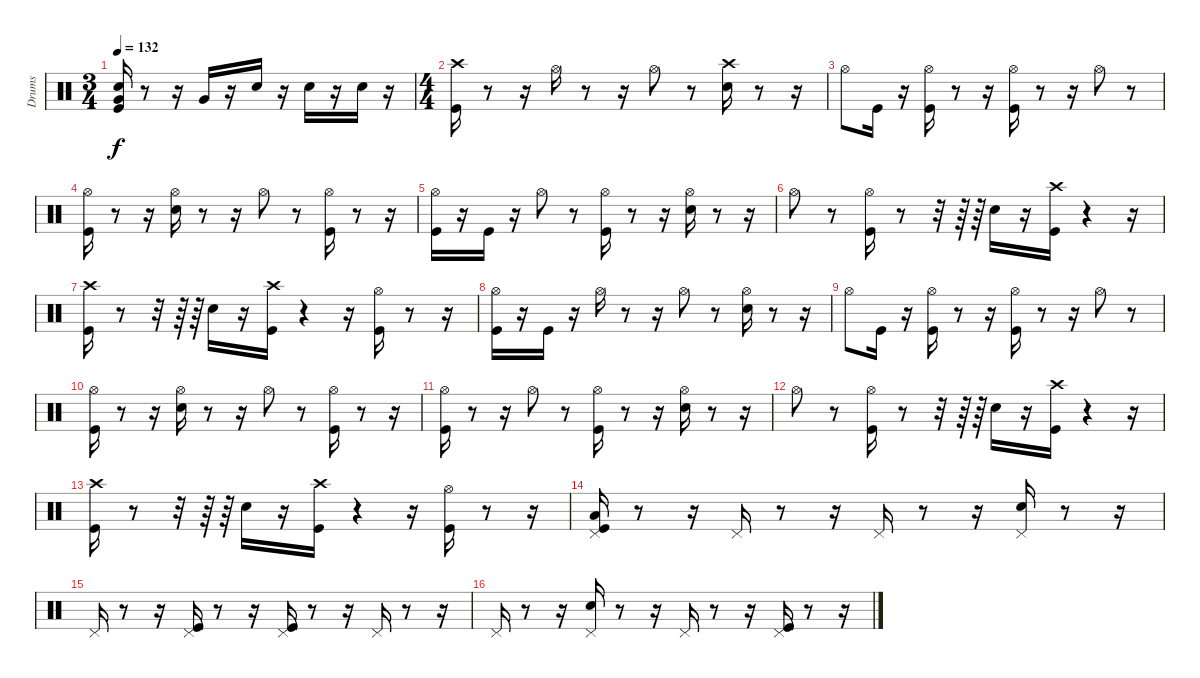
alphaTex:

\track ("Drums" "Drums") {instrument percussion}
\staff {score}
\articulation defaults
\ts (3 4)
\tempo 132
\clef neutral
\ks c
("Snare (hit) 2" "Kick (hit)" "Very Low Tom (hit)").16{dy f} r.8 r.16 "Very Low Tom (hit)".16 r.16 "Snare (hit) 2".16 r.16 "Snare (hit) 2".16 r.16 "Snare (hit) 2".16 r.16 |
\ts (4 4)
("Crash high (hit)" "Kick (hit)").16 r.8 r.16 "Hi-Hat (open)".16 r.8 r.16 "Hi-Hat (open)".8 r.8 ("Snare (hit) 2" "Crash high (hit)").16 r.8 r.16 |
"Hi-Hat (open)".8 "Kick (hit)".16 r.16 ("Hi-Hat (open)" "Kick (hit)").16 r.8 r.16 ("Kick (hit)" "Hi-Hat (open)").16 r.8 r.16 "Hi-Hat (open)".8 r.8 |
("Hi-Hat (open)" "Kick (hit)").16 r.8 r.16 ("Hi-Hat (open)" "Snare (hit) 2").16 r.8 r.16 "Hi-Hat (open)".8 r.8 ("Hi-Hat (open)" "Kick (hit)").16 r.8 r.16 |
("Hi-Hat (open)" "Kick (hit)").16 r.16 "Kick (hit)".16 r.16 "Hi-Hat (open)".8 r.8 ("Kick (hit)" "Hi-Hat (open)").16 r.8 r.16 ("Hi-Hat (open)" "Snare (hit) 2").16 r.8 r.16 |
"Hi-Hat (open)".8 r.8 ("Hi-Hat (open)" "Kick (hit)").16 r.8 r.32 r.64 r.64 "Snare (hit) 2".16 r.16 ("Kick (hit)" "Crash high (hit)").16 r.4 r.16 |
("Kick (hit)" "Crash high (hit)").16 r.8 r.32 r.64 r.64 "Snare (hit) 2".16 r.16 ("Kick (hit)" "Crash high (hit)").16 r.4 r.16 ("Hi-Hat (open)" "Kick (hit)").16 r.8 r.16 |
("Hi-Hat (open)" "Kick (hit)").16 r.16 "Kick (hit)".16 r.16 "Hi-Hat (open)".16 r.8 r.16 "Hi-Hat (open)".8 r.8 ("Snare (hit) 2" "Hi-Hat (open)").16 r.8 r.16 |
"Hi-Hat (open)".8 "Kick (hit)".16 r.16 ("Hi-Hat (open)" "Kick (hit)").16 r.8 r.16 ("Kick (hit)" "Hi-Hat (open)").16 r.8 r.16 "Hi-Hat (open)".8 r.8 |
("Hi-Hat (open)" "Kick (hit)").16 r.8 r.16 ("Hi-Hat (open)" "Snare (hit) 2").16 r.8 r.16 "Hi-Hat (open)".8 r.8 ("Hi-Hat (open)" "Kick (hit)").16 r.8 r.16 |
("Hi-Hat (open)" "Kick (hit)").16 r.8 r.16 "Hi-Hat (open)".8 r.8 ("Kick (hit)" "Hi-Hat (open)").16 r.8 r.16 ("Hi-Hat (open)" "Snare (hit) 2").16 r.8 r.16 |
"Hi-Hat (open)".8 r.8 ("Hi-Hat (open)" "Kick (hit)").16 r.8 r.32 r.64 r.64 "Snare (hit) 2".16 r.16 ("Kick (hit)" "Crash high (hit)").16 r.4 r.16 |
("Kick (hit)" "Crash high (hit)").16 r.8 r.32 r.64 r.64 "Snare (hit) 2".16 r.16 ("Kick (hit)" "Crash high (hit)").16 r.4 r.16 ("Kick (hit)" "Hi-Hat (open)").16 r.8 r.16 |
("Pedal Hi-Hat (hit)" "Low Floor Tom (hit)" "Kick (hit)").16 r.8 r.16 "Pedal Hi-Hat (hit)".16 r.8 r.16 "Pedal Hi-Hat (hit)".16 r.8 r.16 ("Pedal Hi-Hat (hit)" "Snare (hit) 2").16 r.8 r.16 |
"Pedal Hi-Hat (hit)".16 r.8 r.16 ("Pedal Hi-Hat (hit)" "Kick (hit)").16 r.8 r.16 ("Pedal Hi-Hat (hit)" "Kick (hit)").16 r.8 r.16 "Pedal Hi-Hat (hit)".16 r.8 r.16 |
"Pedal Hi-Hat (hit)".16 r.8 r.16 ("Pedal Hi-Hat (hit)" "Snare (hit) 2").16 r.8 r.16 "Pedal Hi-Hat (hit)".16 r.8 r.16 ("Pedal Hi-Hat (hit)" "Kick (hit)").16 r.8 r.16
